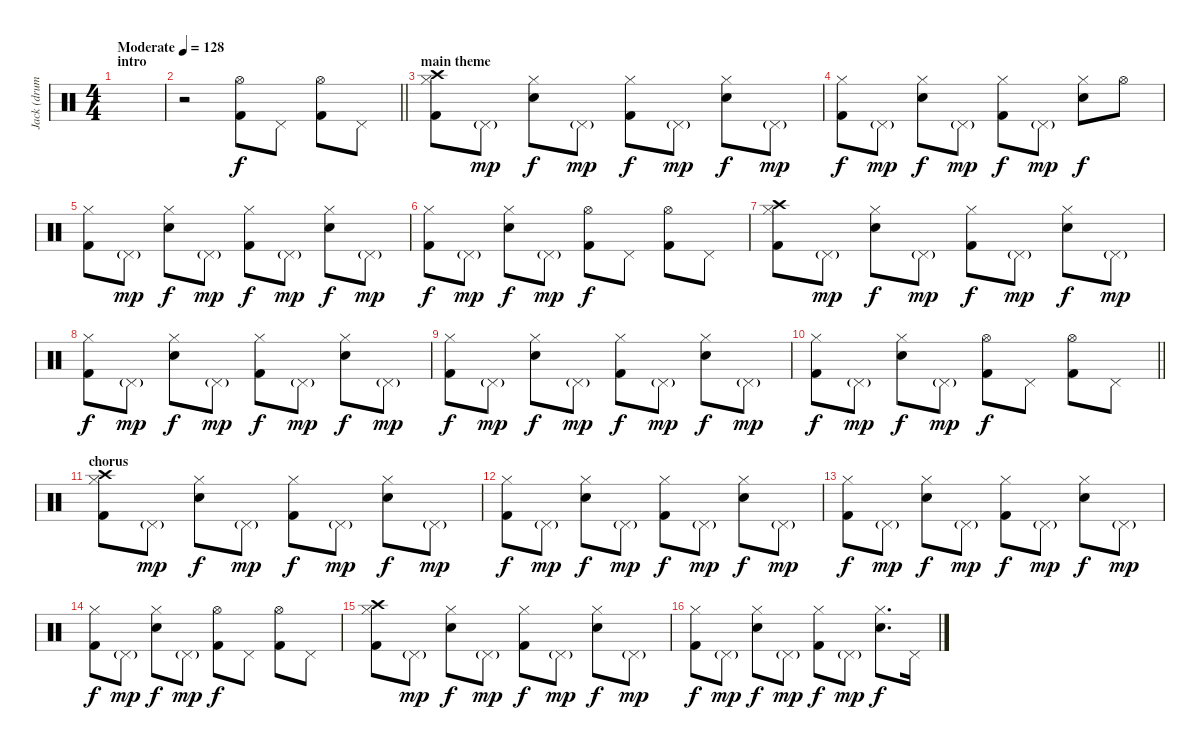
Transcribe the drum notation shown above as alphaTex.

\track ("Jack (drums)" "Jack (drum") {instrument percussion}
\staff {score}
\articulation defaults
\ts (4 4)
\section ("" "intro")
\tempo (128 "Moderate")
\clef neutral
\ks c
|
\barLineRight lightlight
r.2 ("Hi-Hat (open)" "Kick (hit) 2").8 "Pedal Hi-Hat (hit)".8 ("Hi-Hat (open)" "Kick (hit) 2").8 "Pedal Hi-Hat (hit)".8 |
\section ("" "main theme")
("Hi-Hat (closed)" "Crash high (hit)" "Kick (hit) 2").8 "Pedal Hi-Hat (hit)"{g}.8{dy mp} ("Hi-Hat (closed)" "Snare (hit) 2").8{dy f} "Pedal Hi-Hat (hit)"{g}.8{dy mp} ("Hi-Hat (closed)" "Kick (hit) 2").8{dy f} "Pedal Hi-Hat (hit)"{g}.8{dy mp} ("Hi-Hat (closed)" "Snare (hit) 2").8{dy f} "Pedal Hi-Hat (hit)"{g}.8{dy mp} |
("Hi-Hat (closed)" "Kick (hit) 2").8{dy f} "Pedal Hi-Hat (hit)"{g}.8{dy mp} ("Hi-Hat (closed)" "Snare (hit) 2").8{dy f} "Pedal Hi-Hat (hit)"{g}.8{dy mp} ("Hi-Hat (closed)" "Kick (hit) 2").8{dy f} "Pedal Hi-Hat (hit)"{g}.8{dy mp} ("Hi-Hat (closed)" "Snare (hit) 2").8{dy f} "Hi-Hat (open)".8 |
("Hi-Hat (closed)" "Kick (hit) 2").8 "Pedal Hi-Hat (hit)"{g}.8{dy mp} ("Hi-Hat (closed)" "Snare (hit) 2").8{dy f} "Pedal Hi-Hat (hit)"{g}.8{dy mp} ("Hi-Hat (closed)" "Kick (hit) 2").8{dy f} "Pedal Hi-Hat (hit)"{g}.8{dy mp} ("Hi-Hat (closed)" "Snare (hit) 2").8{dy f} "Pedal Hi-Hat (hit)"{g}.8{dy mp} |
("Hi-Hat (closed)" "Kick (hit) 2").8{dy f} "Pedal Hi-Hat (hit)"{g}.8{dy mp} ("Hi-Hat (closed)" "Snare (hit) 2").8{dy f} "Pedal Hi-Hat (hit)"{g}.8{dy mp} ("Hi-Hat (open)" "Kick (hit) 2").8{dy f} "Pedal Hi-Hat (hit)".8 ("Hi-Hat (open)" "Kick (hit) 2").8 "Pedal Hi-Hat (hit)".8 |
("Hi-Hat (closed)" "Crash high (hit)" "Kick (hit) 2").8 "Pedal Hi-Hat (hit)"{g}.8{dy mp} ("Hi-Hat (closed)" "Snare (hit) 2").8{dy f} "Pedal Hi-Hat (hit)"{g}.8{dy mp} ("Hi-Hat (closed)" "Kick (hit) 2").8{dy f} "Pedal Hi-Hat (hit)"{g}.8{dy mp} ("Hi-Hat (closed)" "Snare (hit) 2").8{dy f} "Pedal Hi-Hat (hit)"{g}.8{dy mp} |
("Hi-Hat (closed)" "Kick (hit) 2").8{dy f} "Pedal Hi-Hat (hit)"{g}.8{dy mp} ("Hi-Hat (closed)" "Snare (hit) 2").8{dy f} "Pedal Hi-Hat (hit)"{g}.8{dy mp} ("Hi-Hat (closed)" "Kick (hit) 2").8{dy f} "Pedal Hi-Hat (hit)"{g}.8{dy mp} ("Hi-Hat (closed)" "Snare (hit) 2").8{dy f} "Pedal Hi-Hat (hit)"{g}.8{dy mp} |
("Hi-Hat (closed)" "Kick (hit) 2").8{dy f} "Pedal Hi-Hat (hit)"{g}.8{dy mp} ("Hi-Hat (closed)" "Snare (hit) 2").8{dy f} "Pedal Hi-Hat (hit)"{g}.8{dy mp} ("Hi-Hat (closed)" "Kick (hit) 2").8{dy f} "Pedal Hi-Hat (hit)"{g}.8{dy mp} ("Hi-Hat (closed)" "Snare (hit) 2").8{dy f} "Pedal Hi-Hat (hit)"{g}.8{dy mp} |
\barLineRight lightlight
("Hi-Hat (closed)" "Kick (hit) 2").8{dy f} "Pedal Hi-Hat (hit)"{g}.8{dy mp} ("Hi-Hat (closed)" "Snare (hit) 2").8{dy f} "Pedal Hi-Hat (hit)"{g}.8{dy mp} ("Hi-Hat (open)" "Kick (hit) 2").8{dy f} "Pedal Hi-Hat (hit)".8 ("Hi-Hat (open)" "Kick (hit) 2").8 "Pedal Hi-Hat (hit)".8 |
\section ("" "chorus")
("Hi-Hat (closed)" "Crash high (hit)" "Kick (hit) 2").8 "Pedal Hi-Hat (hit)"{g}.8{dy mp} ("Hi-Hat (closed)" "Snare (hit) 2").8{dy f} "Pedal Hi-Hat (hit)"{g}.8{dy mp} ("Hi-Hat (closed)" "Kick (hit) 2").8{dy f} "Pedal Hi-Hat (hit)"{g}.8{dy mp} ("Hi-Hat (closed)" "Snare (hit) 2").8{dy f} "Pedal Hi-Hat (hit)"{g}.8{dy mp} |
("Hi-Hat (closed)" "Kick (hit) 2").8{dy f} "Pedal Hi-Hat (hit)"{g}.8{dy mp} ("Hi-Hat (closed)" "Snare (hit) 2").8{dy f} "Pedal Hi-Hat (hit)"{g}.8{dy mp} ("Hi-Hat (closed)" "Kick (hit) 2").8{dy f} "Pedal Hi-Hat (hit)"{g}.8{dy mp} ("Hi-Hat (closed)" "Snare (hit) 2").8{dy f} "Pedal Hi-Hat (hit)"{g}.8{dy mp} |
("Hi-Hat (closed)" "Kick (hit) 2").8{dy f} "Pedal Hi-Hat (hit)"{g}.8{dy mp} ("Hi-Hat (closed)" "Snare (hit) 2").8{dy f} "Pedal Hi-Hat (hit)"{g}.8{dy mp} ("Hi-Hat (closed)" "Kick (hit) 2").8{dy f} "Pedal Hi-Hat (hit)"{g}.8{dy mp} ("Hi-Hat (closed)" "Snare (hit) 2").8{dy f} "Pedal Hi-Hat (hit)"{g}.8{dy mp} |
("Hi-Hat (closed)" "Kick (hit) 2").8{dy f} "Pedal Hi-Hat (hit)"{g}.8{dy mp} ("Hi-Hat (closed)" "Snare (hit) 2").8{dy f} "Pedal Hi-Hat (hit)"{g}.8{dy mp} ("Hi-Hat (open)" "Kick (hit) 2").8{dy f} "Pedal Hi-Hat (hit)".8 ("Hi-Hat (open)" "Kick (hit) 2").8 "Pedal Hi-Hat (hit)".8 |
("Hi-Hat (closed)" "Crash high (hit)" "Kick (hit) 2").8 "Pedal Hi-Hat (hit)"{g}.8{dy mp} ("Hi-Hat (closed)" "Snare (hit) 2").8{dy f} "Pedal Hi-Hat (hit)"{g}.8{dy mp} ("Hi-Hat (closed)" "Kick (hit) 2").8{dy f} "Pedal Hi-Hat (hit)"{g}.8{dy mp} ("Hi-Hat (closed)" "Snare (hit) 2").8{dy f} "Pedal Hi-Hat (hit)"{g}.8{dy mp} |
("Hi-Hat (closed)" "Kick (hit) 2").8{dy f} "Pedal Hi-Hat (hit)"{g}.8{dy mp} ("Hi-Hat (closed)" "Snare (hit) 2").8{dy f} "Pedal Hi-Hat (hit)"{g}.8{dy mp} ("Hi-Hat (closed)" "Kick (hit) 2").8{dy f} "Pedal Hi-Hat (hit)"{g}.8{dy mp} ("Hi-Hat (closed)" "Snare (hit) 2").8{d dy f} "Pedal Hi-Hat (hit)".16
